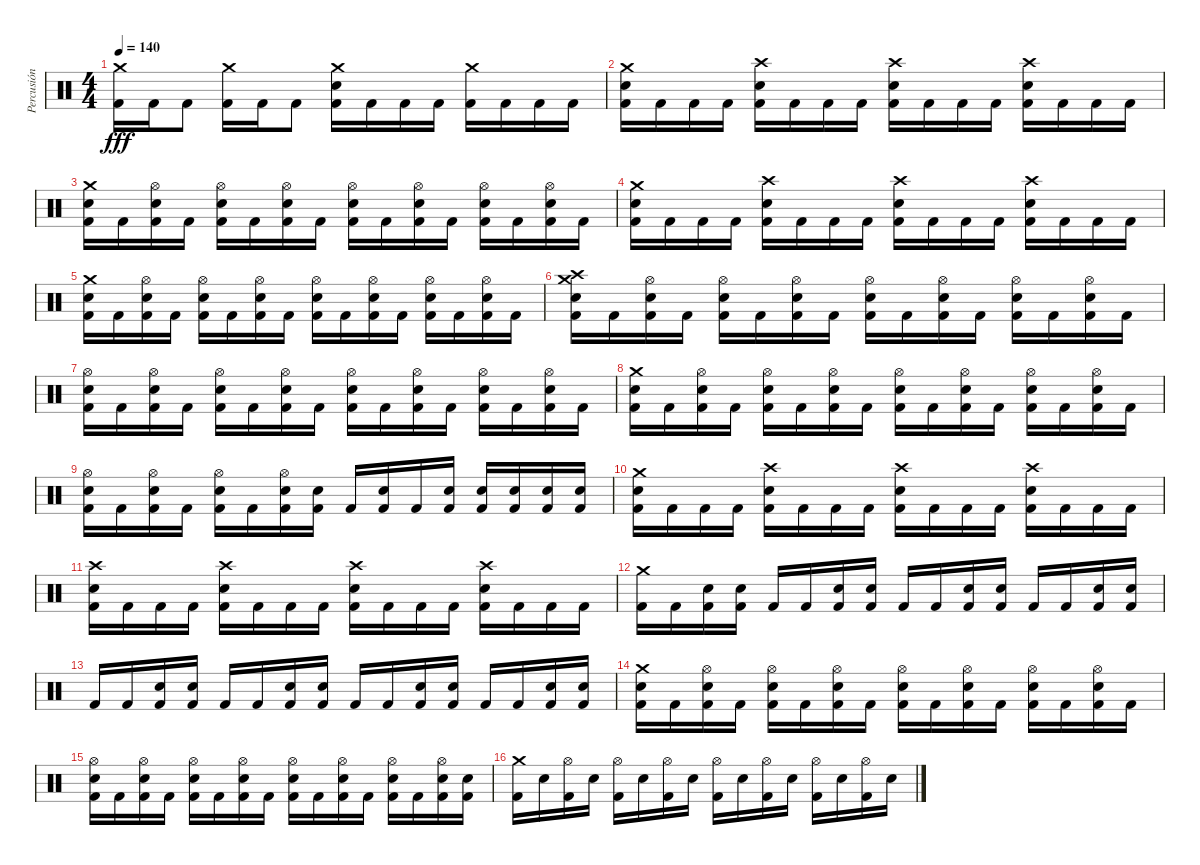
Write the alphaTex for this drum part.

\track ("Percusión" "Percusión") {instrument percussion}
\staff {score}
\articulation defaults
\ts (4 4)
\tempo 140
\clef neutral
\ks c
("Crash medium (hit)" "Kick (hit) 2").16{dy fff} "Kick (hit) 2".16 "Kick (hit) 2".8 ("Crash medium (hit)" "Kick (hit) 2").16 "Kick (hit) 2".16 "Kick (hit) 2".8 ("Crash medium (hit)" "Electric Snare (hit)" "Kick (hit) 2").16 "Kick (hit) 2".16 "Kick (hit) 2".16 "Kick (hit) 2".16 ("Crash medium (hit)" "Kick (hit) 2").16 "Kick (hit) 2".16 "Kick (hit) 2".16 "Kick (hit) 2".16 |
("Crash medium (hit)" "Electric Snare (hit)" "Kick (hit) 2").16 "Kick (hit) 2".16 "Kick (hit) 2".16 "Kick (hit) 2".16 ("Crash high (hit)" "Electric Snare (hit)" "Kick (hit) 2").16 "Kick (hit) 2".16 "Kick (hit) 2".16 "Kick (hit) 2".16 ("Crash high (hit)" "Electric Snare (hit)" "Kick (hit) 2").16 "Kick (hit) 2".16 "Kick (hit) 2".16 "Kick (hit) 2".16 ("Crash high (hit)" "Electric Snare (hit)" "Kick (hit) 2").16 "Kick (hit) 2".16 "Kick (hit) 2".16 "Kick (hit) 2".16 |
("Crash medium (hit)" "Electric Snare (hit)" "Kick (hit) 2").16 "Kick (hit) 2".16 ("Hi-Hat (open)" "Electric Snare (hit)" "Kick (hit) 2").16 "Kick (hit) 2".16 ("Hi-Hat (open)" "Electric Snare (hit)" "Kick (hit) 2").16 "Kick (hit) 2".16 ("Hi-Hat (open)" "Electric Snare (hit)" "Kick (hit) 2").16 "Kick (hit) 2".16 ("Hi-Hat (open)" "Electric Snare (hit)" "Kick (hit) 2").16 "Kick (hit) 2".16 ("Hi-Hat (open)" "Electric Snare (hit)" "Kick (hit) 2").16 "Kick (hit) 2".16 ("Hi-Hat (open)" "Electric Snare (hit)" "Kick (hit) 2").16 "Kick (hit) 2".16 ("Hi-Hat (open)" "Electric Snare (hit)" "Kick (hit) 2").16 "Kick (hit) 2".16 |
("Crash medium (hit)" "Electric Snare (hit)" "Kick (hit) 2").16 "Kick (hit) 2".16 "Kick (hit) 2".16 "Kick (hit) 2".16 ("Crash high (hit)" "Electric Snare (hit)" "Kick (hit) 2").16 "Kick (hit) 2".16 "Kick (hit) 2".16 "Kick (hit) 2".16 ("Crash high (hit)" "Electric Snare (hit)" "Kick (hit) 2").16 "Kick (hit) 2".16 "Kick (hit) 2".16 "Kick (hit) 2".16 ("Crash high (hit)" "Electric Snare (hit)" "Kick (hit) 2").16 "Kick (hit) 2".16 "Kick (hit) 2".16 "Kick (hit) 2".16 |
("Crash medium (hit)" "Electric Snare (hit)" "Kick (hit) 2").16 "Kick (hit) 2".16 ("Hi-Hat (open)" "Electric Snare (hit)" "Kick (hit) 2").16 "Kick (hit) 2".16 ("Hi-Hat (open)" "Electric Snare (hit)" "Kick (hit) 2").16 "Kick (hit) 2".16 ("Hi-Hat (open)" "Electric Snare (hit)" "Kick (hit) 2").16 "Kick (hit) 2".16 ("Hi-Hat (open)" "Electric Snare (hit)" "Kick (hit) 2").16 "Kick (hit) 2".16 ("Hi-Hat (open)" "Electric Snare (hit)" "Kick (hit) 2").16 "Kick (hit) 2".16 ("Hi-Hat (open)" "Electric Snare (hit)" "Kick (hit) 2").16 "Kick (hit) 2".16 ("Hi-Hat (open)" "Electric Snare (hit)" "Kick (hit) 2").16 "Kick (hit) 2".16 |
("Crash medium (hit)" "Crash high (hit)" "Electric Snare (hit)" "Kick (hit) 2").16 "Kick (hit) 2".16 ("Hi-Hat (open)" "Electric Snare (hit)" "Kick (hit) 2").16 "Kick (hit) 2".16 ("Hi-Hat (open)" "Electric Snare (hit)" "Kick (hit) 2").16 "Kick (hit) 2".16 ("Hi-Hat (open)" "Electric Snare (hit)" "Kick (hit) 2").16 "Kick (hit) 2".16 ("Hi-Hat (open)" "Electric Snare (hit)" "Kick (hit) 2").16 "Kick (hit) 2".16 ("Hi-Hat (open)" "Electric Snare (hit)" "Kick (hit) 2").16 "Kick (hit) 2".16 ("Hi-Hat (open)" "Electric Snare (hit)" "Kick (hit) 2").16 "Kick (hit) 2".16 ("Hi-Hat (open)" "Electric Snare (hit)" "Kick (hit) 2").16 "Kick (hit) 2".16 |
("Hi-Hat (open)" "Electric Snare (hit)" "Kick (hit) 2").16 "Kick (hit) 2".16 ("Hi-Hat (open)" "Electric Snare (hit)" "Kick (hit) 2").16 "Kick (hit) 2".16 ("Hi-Hat (open)" "Electric Snare (hit)" "Kick (hit) 2").16 "Kick (hit) 2".16 ("Hi-Hat (open)" "Electric Snare (hit)" "Kick (hit) 2").16 "Kick (hit) 2".16 ("Hi-Hat (open)" "Electric Snare (hit)" "Kick (hit) 2").16 "Kick (hit) 2".16 ("Hi-Hat (open)" "Electric Snare (hit)" "Kick (hit) 2").16 "Kick (hit) 2".16 ("Hi-Hat (open)" "Electric Snare (hit)" "Kick (hit) 2").16 "Kick (hit) 2".16 ("Hi-Hat (open)" "Electric Snare (hit)" "Kick (hit) 2").16 "Kick (hit) 2".16 |
("Crash medium (hit)" "Electric Snare (hit)" "Kick (hit) 2").16 "Kick (hit) 2".16 ("Hi-Hat (open)" "Electric Snare (hit)" "Kick (hit) 2").16 "Kick (hit) 2".16 ("Hi-Hat (open)" "Electric Snare (hit)" "Kick (hit) 2").16 "Kick (hit) 2".16 ("Hi-Hat (open)" "Electric Snare (hit)" "Kick (hit) 2").16 "Kick (hit) 2".16 ("Hi-Hat (open)" "Electric Snare (hit)" "Kick (hit) 2").16 "Kick (hit) 2".16 ("Hi-Hat (open)" "Electric Snare (hit)" "Kick (hit) 2").16 "Kick (hit) 2".16 ("Hi-Hat (open)" "Electric Snare (hit)" "Kick (hit) 2").16 "Kick (hit) 2".16 ("Hi-Hat (open)" "Electric Snare (hit)" "Kick (hit) 2").16 "Kick (hit) 2".16 |
("Hi-Hat (open)" "Electric Snare (hit)" "Kick (hit) 2").16 "Kick (hit) 2".16 ("Hi-Hat (open)" "Electric Snare (hit)" "Kick (hit) 2").16 "Kick (hit) 2".16 ("Hi-Hat (open)" "Electric Snare (hit)" "Kick (hit) 2").16 "Kick (hit) 2".16 ("Hi-Hat (open)" "Electric Snare (hit)" "Kick (hit) 2").16 ("Electric Snare (hit)" "Kick (hit) 2").16 "Kick (hit) 2".16 ("Electric Snare (hit)" "Kick (hit) 2").16 "Kick (hit) 2".16 ("Electric Snare (hit)" "Kick (hit) 2").16 ("Electric Snare (hit)" "Kick (hit) 2").16 ("Electric Snare (hit)" "Kick (hit) 2").16 ("Electric Snare (hit)" "Kick (hit) 2").16 ("Electric Snare (hit)" "Kick (hit) 2").16 |
("Crash medium (hit)" "Electric Snare (hit)" "Kick (hit) 2").16 "Kick (hit) 2".16 "Kick (hit) 2".16 "Kick (hit) 2".16 ("Crash high (hit)" "Electric Snare (hit)" "Kick (hit) 2").16 "Kick (hit) 2".16 "Kick (hit) 2".16 "Kick (hit) 2".16 ("Crash high (hit)" "Electric Snare (hit)" "Kick (hit) 2").16 "Kick (hit) 2".16 "Kick (hit) 2".16 "Kick (hit) 2".16 ("Crash high (hit)" "Electric Snare (hit)" "Kick (hit) 2").16 "Kick (hit) 2".16 "Kick (hit) 2".16 "Kick (hit) 2".16 |
("Crash high (hit)" "Electric Snare (hit)" "Kick (hit) 2").16 "Kick (hit) 2".16 "Kick (hit) 2".16 "Kick (hit) 2".16 ("Crash high (hit)" "Electric Snare (hit)" "Kick (hit) 2").16 "Kick (hit) 2".16 "Kick (hit) 2".16 "Kick (hit) 2".16 ("Crash high (hit)" "Electric Snare (hit)" "Kick (hit) 2").16 "Kick (hit) 2".16 "Kick (hit) 2".16 "Kick (hit) 2".16 ("Crash high (hit)" "Electric Snare (hit)" "Kick (hit) 2").16 "Kick (hit) 2".16 "Kick (hit) 2".16 "Kick (hit) 2".16 |
("Crash medium (hit)" "Kick (hit) 2").16 "Kick (hit) 2".16 ("Electric Snare (hit)" "Kick (hit) 2").16 ("Electric Snare (hit)" "Kick (hit) 2").16 "Kick (hit) 2".16 "Kick (hit) 2".16 ("Electric Snare (hit)" "Kick (hit) 2").16 ("Electric Snare (hit)" "Kick (hit) 2").16 "Kick (hit) 2".16 "Kick (hit) 2".16 ("Electric Snare (hit)" "Kick (hit) 2").16 ("Electric Snare (hit)" "Kick (hit) 2").16 "Kick (hit) 2".16 "Kick (hit) 2".16 ("Electric Snare (hit)" "Kick (hit) 2").16 ("Electric Snare (hit)" "Kick (hit) 2").16 |
"Kick (hit) 2".16 "Kick (hit) 2".16 ("Electric Snare (hit)" "Kick (hit) 2").16 ("Electric Snare (hit)" "Kick (hit) 2").16 "Kick (hit) 2".16 "Kick (hit) 2".16 ("Electric Snare (hit)" "Kick (hit) 2").16 ("Electric Snare (hit)" "Kick (hit) 2").16 "Kick (hit) 2".16 "Kick (hit) 2".16 ("Electric Snare (hit)" "Kick (hit) 2").16 ("Electric Snare (hit)" "Kick (hit) 2").16 "Kick (hit) 2".16 "Kick (hit) 2".16 ("Electric Snare (hit)" "Kick (hit) 2").16 ("Electric Snare (hit)" "Kick (hit) 2").16 |
("Crash medium (hit)" "Electric Snare (hit)" "Kick (hit) 2").16 "Kick (hit) 2".16 ("Hi-Hat (open)" "Electric Snare (hit)" "Kick (hit) 2").16 "Kick (hit) 2".16 ("Hi-Hat (open)" "Electric Snare (hit)" "Kick (hit) 2").16 "Kick (hit) 2".16 ("Hi-Hat (open)" "Electric Snare (hit)" "Kick (hit) 2").16 "Kick (hit) 2".16 ("Hi-Hat (open)" "Electric Snare (hit)" "Kick (hit) 2").16 "Kick (hit) 2".16 ("Hi-Hat (open)" "Electric Snare (hit)" "Kick (hit) 2").16 "Kick (hit) 2".16 ("Hi-Hat (open)" "Electric Snare (hit)" "Kick (hit) 2").16 "Kick (hit) 2".16 ("Hi-Hat (open)" "Electric Snare (hit)" "Kick (hit) 2").16 "Kick (hit) 2".16 |
("Hi-Hat (open)" "Electric Snare (hit)" "Kick (hit) 2").16 "Kick (hit) 2".16 ("Hi-Hat (open)" "Electric Snare (hit)" "Kick (hit) 2").16 "Kick (hit) 2".16 ("Hi-Hat (open)" "Electric Snare (hit)" "Kick (hit) 2").16 "Kick (hit) 2".16 ("Hi-Hat (open)" "Electric Snare (hit)" "Kick (hit) 2").16 "Kick (hit) 2".16 ("Hi-Hat (open)" "Electric Snare (hit)" "Kick (hit) 2").16 "Kick (hit) 2".16 ("Hi-Hat (open)" "Electric Snare (hit)" "Kick (hit) 2").16 "Kick (hit) 2".16 ("Hi-Hat (open)" "Electric Snare (hit)" "Kick (hit) 2").16 "Kick (hit) 2".16 ("Hi-Hat (open)" "Electric Snare (hit)" "Kick (hit) 2").16 ("Electric Snare (hit)" "Kick (hit) 2").16 |
("Crash medium (hit)" "Kick (hit) 2").16 "Electric Snare (hit)".16 ("Hi-Hat (open)" "Kick (hit) 2").16 "Electric Snare (hit)".16 ("Hi-Hat (open)" "Kick (hit) 2").16 "Electric Snare (hit)".16 ("Hi-Hat (open)" "Kick (hit) 2").16 "Electric Snare (hit)".16 ("Hi-Hat (open)" "Kick (hit) 2").16 "Electric Snare (hit)".16 ("Hi-Hat (open)" "Kick (hit) 2").16 "Electric Snare (hit)".16 ("Hi-Hat (open)" "Kick (hit) 2").16 "Electric Snare (hit)".16 ("Hi-Hat (open)" "Kick (hit) 2").16 "Electric Snare (hit)".16
